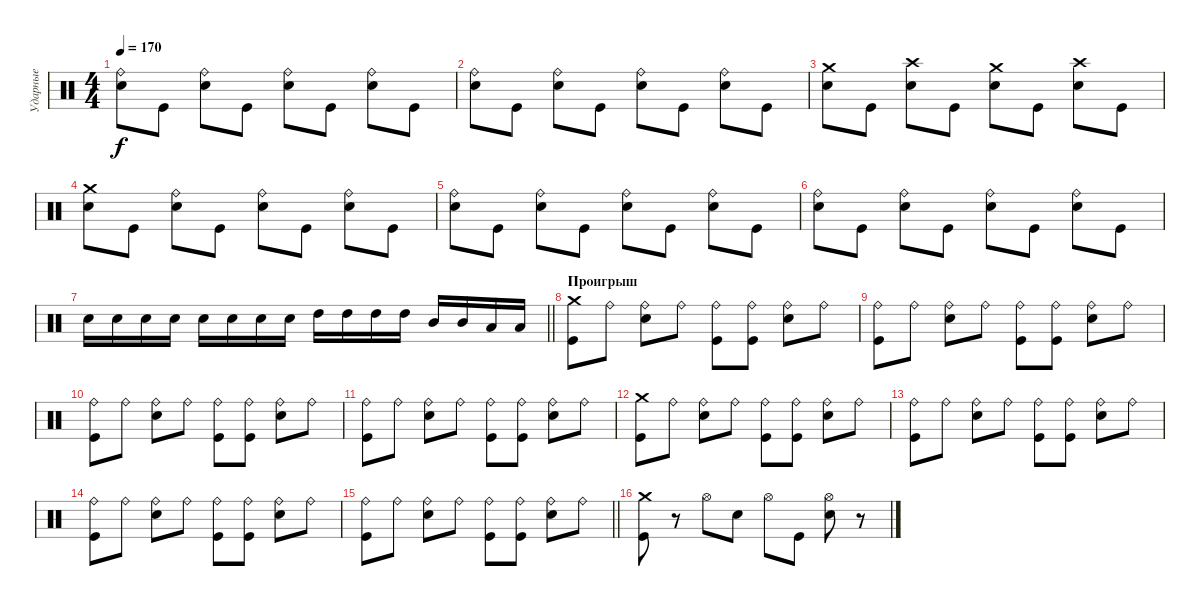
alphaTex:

\track ("Ударные" "Ударные") {instrument percussion}
\staff {score}
\articulation defaults
\ts (4 4)
\tempo 170
\clef neutral
\ks c
("Ride (bell)" "Electric Snare (hit)").8{dy f} "Kick (hit)".8 ("Ride (bell)" "Electric Snare (hit)").8 "Kick (hit)".8 ("Ride (bell)" "Electric Snare (hit)").8 "Kick (hit)".8 ("Ride (bell)" "Electric Snare (hit)").8 "Kick (hit)".8 |
("Ride (bell)" "Electric Snare (hit)").8 "Kick (hit)".8 ("Ride (bell)" "Electric Snare (hit)").8 "Kick (hit)".8 ("Ride (bell)" "Electric Snare (hit)").8 "Kick (hit)".8 ("Ride (bell)" "Electric Snare (hit)").8 "Kick (hit)".8 |
("Crash medium (hit)" "Electric Snare (hit)").8 "Kick (hit)".8 ("Crash high (hit)" "Electric Snare (hit)").8 "Kick (hit)".8 ("Crash medium (hit)" "Electric Snare (hit)").8 "Kick (hit)".8 ("Crash high (hit)" "Electric Snare (hit)").8 "Kick (hit)".8 |
("Crash medium (hit)" "Electric Snare (hit)").8 "Kick (hit)".8 ("Ride (bell)" "Electric Snare (hit)").8 "Kick (hit)".8 ("Ride (bell)" "Electric Snare (hit)").8 "Kick (hit)".8 ("Ride (bell)" "Electric Snare (hit)").8 "Kick (hit)".8 |
("Ride (bell)" "Electric Snare (hit)").8 "Kick (hit)".8 ("Ride (bell)" "Electric Snare (hit)").8 "Kick (hit)".8 ("Ride (bell)" "Electric Snare (hit)").8 "Kick (hit)".8 ("Ride (bell)" "Electric Snare (hit)").8 "Kick (hit)".8 |
("Ride (bell)" "Electric Snare (hit)").8 "Kick (hit)".8 ("Ride (bell)" "Electric Snare (hit)").8 "Kick (hit)".8 ("Ride (bell)" "Electric Snare (hit)").8 "Kick (hit)".8 ("Ride (bell)" "Electric Snare (hit)").8 "Kick (hit)".8 |
\barLineRight lightlight "Electric Snare (hit)".16 "Electric Snare (hit)".16 "Electric Snare (hit)".16 "Electric Snare (hit)".16 "Electric Snare (hit)".16 "Electric Snare (hit)".16 "Electric Snare (hit)".16 "Electric Snare (hit)".16 "High Tom (hit)".16 "High Tom (hit)".16 "High Tom (hit)".16 "High Tom (hit)".16 "Mid Tom (hit)".16 "Mid Tom (hit)".16 "Low Tom (hit)".16 "Low Tom (hit)".16
|
\section ("" "Проигрыш")
("Crash medium (hit)" "Kick (hit)").8 "Ride (bell)".8 ("Ride (bell)" "Electric Snare (hit)").8 "Ride (bell)".8 ("Ride (bell)" "Kick (hit)").8 ("Ride (bell)" "Kick (hit)").8 ("Ride (bell)" "Electric Snare (hit)").8 "Ride (bell)".8 |
("Ride (bell)" "Kick (hit)").8 "Ride (bell)".8 ("Ride (bell)" "Electric Snare (hit)").8 "Ride (bell)".8 ("Ride (bell)" "Kick (hit)").8 ("Ride (bell)" "Kick (hit)").8 ("Ride (bell)" "Electric Snare (hit)").8 "Ride (bell)".8 |
("Ride (bell)" "Kick (hit)").8 "Ride (bell)".8 ("Ride (bell)" "Electric Snare (hit)").8 "Ride (bell)".8 ("Ride (bell)" "Kick (hit)").8 ("Ride (bell)" "Kick (hit)").8 ("Ride (bell)" "Electric Snare (hit)").8 "Ride (bell)".8 |
("Ride (bell)" "Kick (hit)").8 "Ride (bell)".8 ("Ride (bell)" "Electric Snare (hit)").8 "Ride (bell)".8 ("Ride (bell)" "Kick (hit)").8 ("Ride (bell)" "Kick (hit)").8 ("Ride (bell)" "Electric Snare (hit)").8 "Ride (bell)".8 |
("Crash medium (hit)" "Kick (hit)").8 "Ride (bell)".8 ("Ride (bell)" "Electric Snare (hit)").8 "Ride (bell)".8 ("Ride (bell)" "Kick (hit)").8 ("Ride (bell)" "Kick (hit)").8 ("Ride (bell)" "Electric Snare (hit)").8 "Ride (bell)".8 |
("Ride (bell)" "Kick (hit)").8 "Ride (bell)".8 ("Ride (bell)" "Electric Snare (hit)").8 "Ride (bell)".8 ("Ride (bell)" "Kick (hit)").8 ("Ride (bell)" "Kick (hit)").8 ("Ride (bell)" "Electric Snare (hit)").8 "Ride (bell)".8 |
("Ride (bell)" "Kick (hit)").8 "Ride (bell)".8 ("Ride (bell)" "Electric Snare (hit)").8 "Ride (bell)".8 ("Ride (bell)" "Kick (hit)").8 ("Ride (bell)" "Kick (hit)").8 ("Ride (bell)" "Electric Snare (hit)").8 "Ride (bell)".8 |
\barLineRight lightlight
("Ride (bell)" "Kick (hit)").8 "Ride (bell)".8 ("Ride (bell)" "Electric Snare (hit)").8 "Ride (bell)".8 ("Ride (bell)" "Kick (hit)").8 ("Ride (bell)" "Kick (hit)").8 ("Ride (bell)" "Electric Snare (hit)").8 "Ride (bell)".8 |
\section ("" " ")
("Crash medium (hit)" "Kick (hit)").8 r.8 "Hi-Hat (open)".8 "Electric Snare (hit)".8 "Hi-Hat (open)".8 "Kick (hit)".8 ("Hi-Hat (open)" "Electric Snare (hit)").8 r.8
